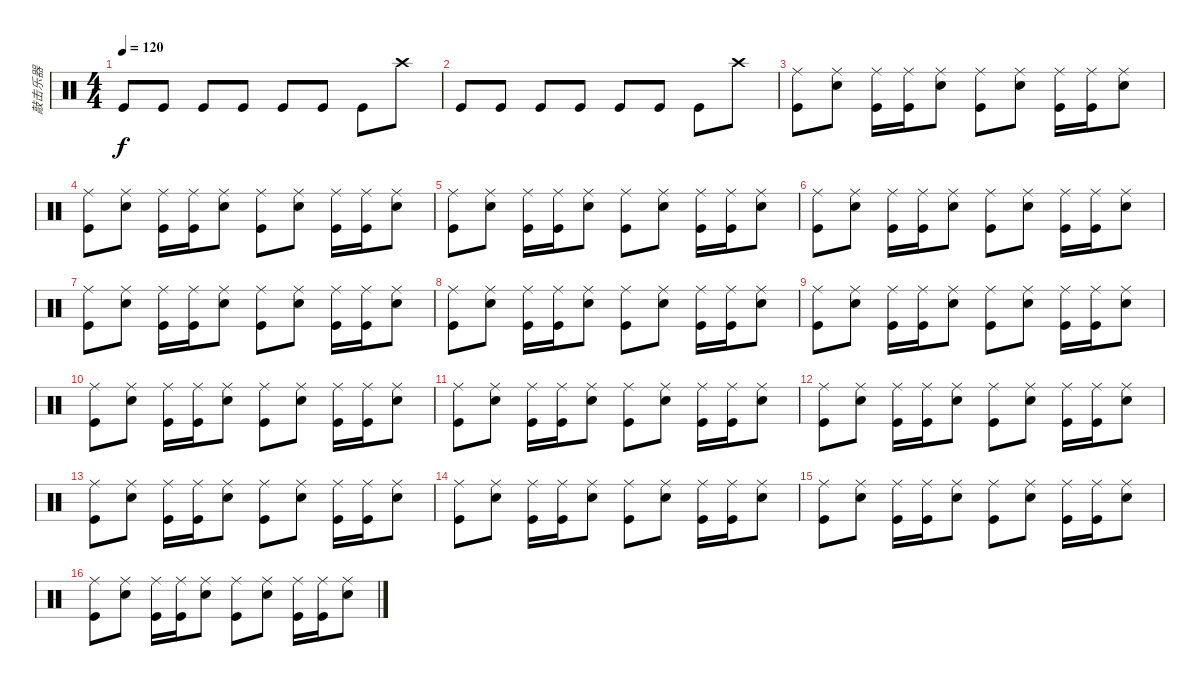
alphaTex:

\track ("敲击乐器" "敲击乐器") {instrument percussion}
\staff {score}
\articulation defaults
\ts (4 4)
\tempo 120
\clef neutral
\ks c "Kick (hit)".8{dy f} "Kick (hit)".8 "Kick (hit)".8 "Kick (hit)".8 "Kick (hit)".8 "Kick (hit)".8 "Kick (hit)".8 "Crash high (hit)".8
|
"Kick (hit)".8 "Kick (hit)".8 "Kick (hit)".8 "Kick (hit)".8 "Kick (hit)".8 "Kick (hit)".8 "Kick (hit)".8 "Crash high (hit)".8 |
("Ride (middle)" "Kick (hit)").8 ("Ride (middle)" "Snare (hit) 2").8 ("Ride (middle)" "Kick (hit)").16 ("Ride (middle)" "Kick (hit)").16 ("Ride (middle)" "Snare (hit) 2").8 ("Ride (middle)" "Kick (hit)").8 ("Ride (middle)" "Snare (hit) 2").8 ("Ride (middle)" "Kick (hit)").16 ("Ride (middle)" "Kick (hit)").16 ("Ride (middle)" "Snare (hit) 2").8 |
("Ride (middle)" "Kick (hit)").8 ("Ride (middle)" "Snare (hit) 2").8 ("Ride (middle)" "Kick (hit)").16 ("Ride (middle)" "Kick (hit)").16 ("Ride (middle)" "Snare (hit) 2").8 ("Ride (middle)" "Kick (hit)").8 ("Ride (middle)" "Snare (hit) 2").8 ("Ride (middle)" "Kick (hit)").16 ("Ride (middle)" "Kick (hit)").16 ("Ride (middle)" "Snare (hit) 2").8 |
("Ride (middle)" "Kick (hit)").8 ("Ride (middle)" "Snare (hit) 2").8 ("Ride (middle)" "Kick (hit)").16 ("Ride (middle)" "Kick (hit)").16 ("Ride (middle)" "Snare (hit) 2").8 ("Ride (middle)" "Kick (hit)").8 ("Ride (middle)" "Snare (hit) 2").8 ("Ride (middle)" "Kick (hit)").16 ("Ride (middle)" "Kick (hit)").16 ("Ride (middle)" "Snare (hit) 2").8 |
("Ride (middle)" "Kick (hit)").8 ("Ride (middle)" "Snare (hit) 2").8 ("Ride (middle)" "Kick (hit)").16 ("Ride (middle)" "Kick (hit)").16 ("Ride (middle)" "Snare (hit) 2").8 ("Ride (middle)" "Kick (hit)").8 ("Ride (middle)" "Snare (hit) 2").8 ("Ride (middle)" "Kick (hit)").16 ("Ride (middle)" "Kick (hit)").16 ("Ride (middle)" "Snare (hit) 2").8 |
("Ride (middle)" "Kick (hit)").8 ("Ride (middle)" "Snare (hit) 2").8 ("Ride (middle)" "Kick (hit)").16 ("Ride (middle)" "Kick (hit)").16 ("Ride (middle)" "Snare (hit) 2").8 ("Ride (middle)" "Kick (hit)").8 ("Ride (middle)" "Snare (hit) 2").8 ("Ride (middle)" "Kick (hit)").16 ("Ride (middle)" "Kick (hit)").16 ("Ride (middle)" "Snare (hit) 2").8 |
("Ride (middle)" "Kick (hit)").8 ("Ride (middle)" "Snare (hit) 2").8 ("Ride (middle)" "Kick (hit)").16 ("Ride (middle)" "Kick (hit)").16 ("Ride (middle)" "Snare (hit) 2").8 ("Ride (middle)" "Kick (hit)").8 ("Ride (middle)" "Snare (hit) 2").8 ("Ride (middle)" "Kick (hit)").16 ("Ride (middle)" "Kick (hit)").16 ("Ride (middle)" "Snare (hit) 2").8 |
("Ride (middle)" "Kick (hit)").8 ("Ride (middle)" "Snare (hit) 2").8 ("Ride (middle)" "Kick (hit)").16 ("Ride (middle)" "Kick (hit)").16 ("Ride (middle)" "Snare (hit) 2").8 ("Ride (middle)" "Kick (hit)").8 ("Ride (middle)" "Snare (hit) 2").8 ("Ride (middle)" "Kick (hit)").16 ("Ride (middle)" "Kick (hit)").16 ("Ride (middle)" "Snare (hit) 2").8 |
("Ride (middle)" "Kick (hit)").8 ("Ride (middle)" "Snare (hit) 2").8 ("Ride (middle)" "Kick (hit)").16 ("Ride (middle)" "Kick (hit)").16 ("Ride (middle)" "Snare (hit) 2").8 ("Ride (middle)" "Kick (hit)").8 ("Ride (middle)" "Snare (hit) 2").8 ("Ride (middle)" "Kick (hit)").16 ("Ride (middle)" "Kick (hit)").16 ("Ride (middle)" "Snare (hit) 2").8 |
("Ride (middle)" "Kick (hit)").8 ("Ride (middle)" "Snare (hit) 2").8 ("Ride (middle)" "Kick (hit)").16 ("Ride (middle)" "Kick (hit)").16 ("Ride (middle)" "Snare (hit) 2").8 ("Ride (middle)" "Kick (hit)").8 ("Ride (middle)" "Snare (hit) 2").8 ("Ride (middle)" "Kick (hit)").16 ("Ride (middle)" "Kick (hit)").16 ("Ride (middle)" "Snare (hit) 2").8 |
("Ride (middle)" "Kick (hit)").8 ("Ride (middle)" "Snare (hit) 2").8 ("Ride (middle)" "Kick (hit)").16 ("Ride (middle)" "Kick (hit)").16 ("Ride (middle)" "Snare (hit) 2").8 ("Ride (middle)" "Kick (hit)").8 ("Ride (middle)" "Snare (hit) 2").8 ("Ride (middle)" "Kick (hit)").16 ("Ride (middle)" "Kick (hit)").16 ("Ride (middle)" "Snare (hit) 2").8 |
("Ride (middle)" "Kick (hit)").8 ("Ride (middle)" "Snare (hit) 2").8 ("Ride (middle)" "Kick (hit)").16 ("Ride (middle)" "Kick (hit)").16 ("Ride (middle)" "Snare (hit) 2").8 ("Ride (middle)" "Kick (hit)").8 ("Ride (middle)" "Snare (hit) 2").8 ("Ride (middle)" "Kick (hit)").16 ("Ride (middle)" "Kick (hit)").16 ("Ride (middle)" "Snare (hit) 2").8 |
("Ride (middle)" "Kick (hit)").8 ("Ride (middle)" "Snare (hit) 2").8 ("Ride (middle)" "Kick (hit)").16 ("Ride (middle)" "Kick (hit)").16 ("Ride (middle)" "Snare (hit) 2").8 ("Ride (middle)" "Kick (hit)").8 ("Ride (middle)" "Snare (hit) 2").8 ("Ride (middle)" "Kick (hit)").16 ("Ride (middle)" "Kick (hit)").16 ("Ride (middle)" "Snare (hit) 2").8 |
("Ride (middle)" "Kick (hit)").8 ("Ride (middle)" "Snare (hit) 2").8 ("Ride (middle)" "Kick (hit)").16 ("Ride (middle)" "Kick (hit)").16 ("Ride (middle)" "Snare (hit) 2").8 ("Ride (middle)" "Kick (hit)").8 ("Ride (middle)" "Snare (hit) 2").8 ("Ride (middle)" "Kick (hit)").16 ("Ride (middle)" "Kick (hit)").16 ("Ride (middle)" "Snare (hit) 2").8 |
("Ride (middle)" "Kick (hit)").8 ("Ride (middle)" "Snare (hit) 2").8 ("Ride (middle)" "Kick (hit)").16 ("Ride (middle)" "Kick (hit)").16 ("Ride (middle)" "Snare (hit) 2").8 ("Ride (middle)" "Kick (hit)").8 ("Ride (middle)" "Snare (hit) 2").8 ("Ride (middle)" "Kick (hit)").16 ("Ride (middle)" "Kick (hit)").16 ("Ride (middle)" "Snare (hit) 2").8
